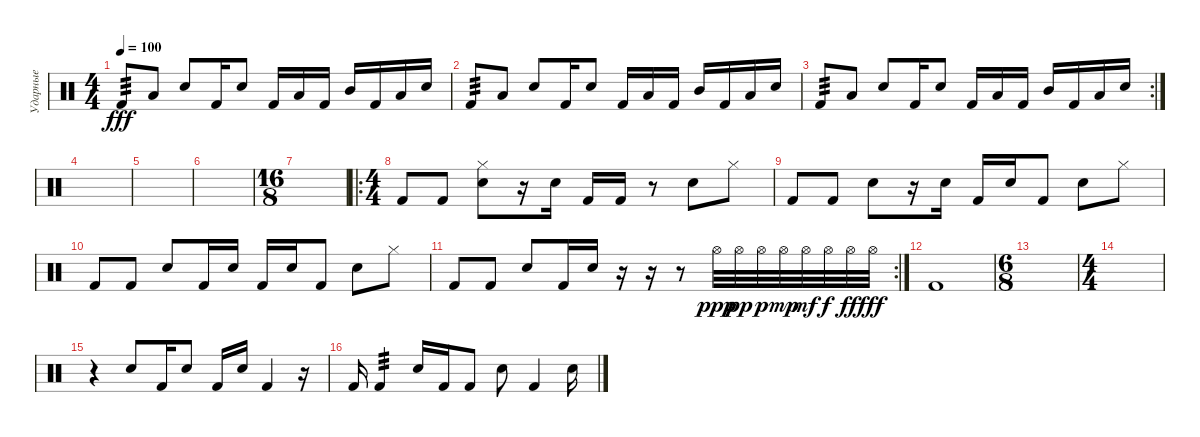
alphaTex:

\track ("Ударные" "Ударные") {instrument percussion}
\staff {score}
\articulation defaults
\ts (4 4)
\tempo 100
\clef neutral
\ks c "Kick (hit) 2".8{tp 3 dy fff} "Low Floor Tom (hit)".8 "Snare (hit) 2".8 "Kick (hit) 2".16 "Snare (hit) 2".8 "Kick (hit) 2".16 "Low Tom (hit)".16 "Kick (hit) 2".16 "Mid Tom (hit)".16 "Kick (hit) 2".16 "Low Tom (hit)".16 "Snare (hit) 2".16
|
"Kick (hit) 2".8{tp 3} "Low Floor Tom (hit)".8 "Snare (hit) 2".8 "Kick (hit) 2".16 "Snare (hit) 2".8 "Kick (hit) 2".16 "Low Tom (hit)".16 "Kick (hit) 2".16 "Mid Tom (hit)".16 "Kick (hit) 2".16 "Low Tom (hit)".16 "Snare (hit) 2".16 |
\rc 2 "Kick (hit) 2".8{tp 3} "Low Floor Tom (hit)".8 "Snare (hit) 2".8 "Kick (hit) 2".16 "Snare (hit) 2".8 "Kick (hit) 2".16 "Low Tom (hit)".16 "Kick (hit) 2".16 "Mid Tom (hit)".16 "Kick (hit) 2".16 "Low Tom (hit)".16 "Snare (hit) 2".16
|
|
|
|
\ts (16 8)
|
\ro
\ts (4 4)
"Kick (hit) 2".8 "Kick (hit) 2".8 ("Hi-Hat (closed)" "Snare (hit) 2").8 r.16 "Snare (hit) 2".16 "Kick (hit) 2".16 "Kick (hit) 2".16 r.8 "Snare (hit) 2".8 "Hi-Hat (closed)".8 |
"Kick (hit) 2".8 "Kick (hit) 2".8 "Snare (hit) 2".8 r.16 "Snare (hit) 2".16 "Kick (hit) 2".16 "Snare (hit) 2".16 "Kick (hit) 2".8 "Snare (hit) 2".8 "Hi-Hat (closed)".8 |
"Kick (hit) 2".8 "Kick (hit) 2".8 "Snare (hit) 2".8 "Kick (hit) 2".16 "Snare (hit) 2".16 "Kick (hit) 2".16 "Snare (hit) 2".16 "Kick (hit) 2".8 "Snare (hit) 2".8 "Hi-Hat (closed)".8 |
\rc 2 "Kick (hit) 2".8 "Kick (hit) 2".8 "Snare (hit) 2".8 "Kick (hit) 2".16 "Snare (hit) 2".16
r.16 r.16 r.8 "Hi-Hat (open)".32{dy ppp} "Hi-Hat (open)".32{dy pp} "Hi-Hat (open)".32{dy p} "Hi-Hat (open)".32{dy mp} "Hi-Hat (open)".32{dy mf} "Hi-Hat (open)".32{dy f} "Hi-Hat (open)".32{dy ff} "Hi-Hat (open)".32{dy fff} |
"Kick (hit) 2".1 |
\ts (6 8)
|
\ts (4 4)
|
r.4 "Snare (hit) 2".8 "Kick (hit) 2".16 "Snare (hit) 2".8 "Kick (hit) 2".16 "Snare (hit) 2".16 "Kick (hit) 2".4 r.16 |
"Kick (hit) 2".16 "Kick (hit) 2".4{tp 3} "Snare (hit) 2".16 "Kick (hit) 2".16 "Kick (hit) 2".8 "Snare (hit) 2".8 "Kick (hit) 2".4 "Snare (hit) 2".16
